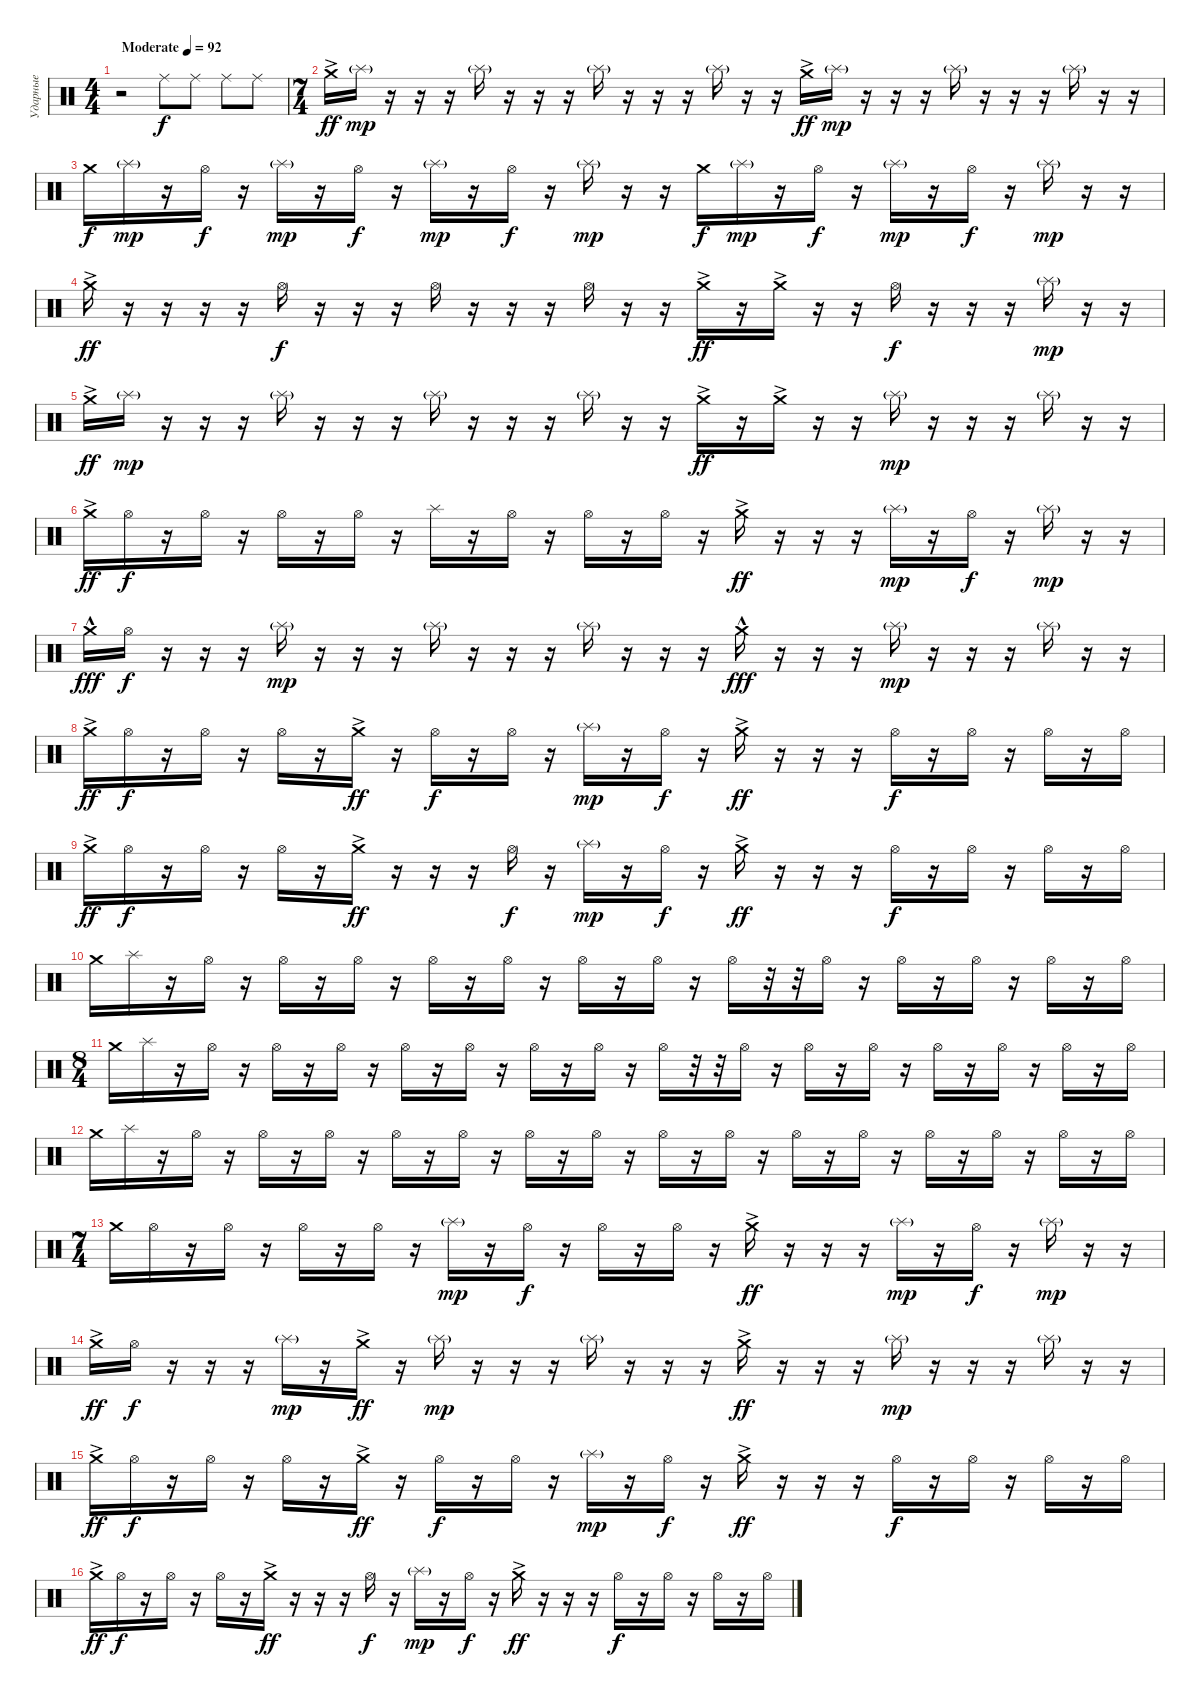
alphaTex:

\track ("Ударные" "Ударные") {instrument percussion}
\staff {score}
\articulation defaults
\ts (4 4)
\tempo (92 "Moderate")
\clef neutral
\ks c
r.2{dy f} "Ride (middle)".8 "Ride (middle)".8 "Ride (middle)".8 "Ride (middle)".8 |
\ts (7 4)
"Crash medium (hit)"{ac}.16{dy ff} "Splash (hit)"{g}.16{dy mp} r.16 r.16 r.16 "Splash (hit)"{g}.16 r.16 r.16 r.16 "Splash (hit)"{g}.16 r.16 r.16 r.16 "Splash (hit)"{g}.16 r.16 r.16 "Crash medium (hit)"{ac}.16{dy ff} "Splash (hit)"{g}.16{dy mp} r.16 r.16 r.16 "Splash (hit)"{g}.16 r.16 r.16 r.16 "Splash (hit)"{g}.16 r.16 r.16 |
"Crash medium (hit)".16{dy f} "Splash (hit)"{g}.16{dy mp} r.16 "Hi-Hat (open)".16{dy f} r.16 "Splash (hit)"{g}.16{dy mp} r.16 "Hi-Hat (open)".16{dy f} r.16 "Splash (hit)"{g}.16{dy mp} r.16 "Hi-Hat (open)".16{dy f} r.16 "Splash (hit)"{g}.16{dy mp} r.16 r.16 "Crash medium (hit)".16{dy f} "Splash (hit)"{g}.16{dy mp} r.16 "Hi-Hat (open)".16{dy f} r.16 "Splash (hit)"{g}.16{dy mp} r.16 "Hi-Hat (open)".16{dy f} r.16 "Splash (hit)"{g}.16{dy mp} r.16 r.16 |
"Crash medium (hit)"{ac}.16{dy ff} r.16 r.16 r.16 r.16 "Hi-Hat (open)".16{dy f} r.16 r.16 r.16 "Hi-Hat (open)".16 r.16 r.16 r.16 "Hi-Hat (open)".16 r.16 r.16 "Crash medium (hit)"{ac}.16{dy ff} r.16 "Crash medium (hit)"{ac}.16 r.16 r.16 "Hi-Hat (open)".16{dy f} r.16 r.16 r.16 "Splash (hit)"{g}.16{dy mp} r.16 r.16 |
"Crash medium (hit)"{ac}.16{dy ff} "Splash (hit)"{g}.16{dy mp} r.16 r.16 r.16 "Splash (hit)"{g}.16 r.16 r.16 r.16 "Splash (hit)"{g}.16 r.16 r.16 r.16 "Splash (hit)"{g}.16 r.16 r.16 "Crash medium (hit)"{ac}.16{dy ff} r.16 "Crash medium (hit)"{ac}.16 r.16 r.16 "Splash (hit)"{g}.16{dy mp} r.16 r.16 r.16 "Splash (hit)"{g}.16 r.16 r.16 |
"Crash medium (hit)"{ac}.16{dy ff} "Hi-Hat (open)".16{dy f} r.16 "Hi-Hat (open)".16 r.16 "Hi-Hat (open)".16 r.16 "Hi-Hat (open)".16 r.16 "Splash (hit)".16 r.16 "Hi-Hat (open)".16 r.16 "Hi-Hat (open)".16 r.16 "Hi-Hat (open)".16 r.16 "Crash medium (hit)"{ac}.16{dy ff} r.16 r.16 r.16 "Splash (hit)"{g}.16{dy mp} r.16 "Hi-Hat (open)".16{dy f} r.16 "Splash (hit)"{g}.16{dy mp} r.16 r.16 |
"Crash medium (hit)"{hac}.16{dy fff} "Hi-Hat (open)".16{dy f} r.16 r.16 r.16 "Splash (hit)"{g}.16{dy mp} r.16 r.16 r.16 "Splash (hit)"{g}.16 r.16 r.16 r.16 "Splash (hit)"{g}.16 r.16 r.16 r.16 "Crash medium (hit)"{hac}.16{dy fff} r.16 r.16 r.16 "Splash (hit)"{g}.16{dy mp} r.16 r.16 r.16 "Splash (hit)"{g}.16 r.16 r.16 |
"Crash medium (hit)"{ac}.16{dy ff} "Hi-Hat (open)".16{dy f} r.16 "Hi-Hat (open)".16 r.16 "Hi-Hat (open)".16 r.16 "Crash medium (hit)"{ac}.16{dy ff} r.16 "Hi-Hat (open)".16{dy f} r.16 "Hi-Hat (open)".16 r.16 "Splash (hit)"{g}.16{dy mp} r.16 "Hi-Hat (open)".16{dy f} r.16 "Crash medium (hit)"{ac}.16{dy ff} r.16 r.16 r.16 "Hi-Hat (open)".16{dy f} r.16 "Hi-Hat (open)".16 r.16 "Hi-Hat (open)".16 r.16 "Hi-Hat (open)".16 |
"Crash medium (hit)"{ac}.16{dy ff} "Hi-Hat (open)".16{dy f} r.16 "Hi-Hat (open)".16 r.16 "Hi-Hat (open)".16 r.16 "Crash medium (hit)"{ac}.16{dy ff} r.16 r.16 r.16 "Hi-Hat (open)".16{dy f} r.16 "Splash (hit)"{g}.16{dy mp} r.16 "Hi-Hat (open)".16{dy f} r.16 "Crash medium (hit)"{ac}.16{dy ff} r.16 r.16 r.16 "Hi-Hat (open)".16{dy f} r.16 "Hi-Hat (open)".16 r.16 "Hi-Hat (open)".16 r.16 "Hi-Hat (open)".16 |
"Crash medium (hit)".16 "Splash (hit)".16 r.16 "Hi-Hat (open)".16 r.16 "Hi-Hat (open)".16 r.16 "Hi-Hat (open)".16 r.16 "Hi-Hat (open)".16 r.16 "Hi-Hat (open)".16 r.16 "Hi-Hat (open)".16 r.16 "Hi-Hat (open)".16 r.16 "Hi-Hat (open)".16 r.32 r.32 "Hi-Hat (open)".16 r.16 "Hi-Hat (open)".16 r.16 "Hi-Hat (open)".16 r.16 "Hi-Hat (open)".16 r.16 "Hi-Hat (open)".16 |
\ts (8 4)
"Crash medium (hit)".16 "Splash (hit)".16 r.16 "Hi-Hat (open)".16 r.16 "Hi-Hat (open)".16 r.16 "Hi-Hat (open)".16 r.16 "Hi-Hat (open)".16 r.16 "Hi-Hat (open)".16 r.16 "Hi-Hat (open)".16 r.16 "Hi-Hat (open)".16 r.16 "Hi-Hat (open)".16 r.32 r.32 "Hi-Hat (open)".16 r.16 "Hi-Hat (open)".16 r.16 "Hi-Hat (open)".16 r.16 "Hi-Hat (open)".16 r.16 "Hi-Hat (open)".16 r.16 "Hi-Hat (open)".16 r.16 "Hi-Hat (open)".16 |
"Crash medium (hit)".16 "Splash (hit)".16 r.16 "Hi-Hat (open)".16 r.16 "Hi-Hat (open)".16 r.16 "Hi-Hat (open)".16 r.16 "Hi-Hat (open)".16 r.16 "Hi-Hat (open)".16 r.16 "Hi-Hat (open)".16 r.16 "Hi-Hat (open)".16 r.16 "Hi-Hat (open)".16 r.16 "Hi-Hat (open)".16 r.16 "Hi-Hat (open)".16 r.16 "Hi-Hat (open)".16 r.16 "Hi-Hat (open)".16 r.16 "Hi-Hat (open)".16 r.16 "Hi-Hat (open)".16 r.16 "Hi-Hat (open)".16 |
\ts (7 4)
"Crash medium (hit)".16 "Hi-Hat (open)".16 r.16 "Hi-Hat (open)".16 r.16 "Hi-Hat (open)".16 r.16 "Hi-Hat (open)".16 r.16 "Splash (hit)"{g}.16{dy mp} r.16 "Hi-Hat (open)".16{dy f} r.16 "Hi-Hat (open)".16 r.16 "Hi-Hat (open)".16 r.16 "Crash medium (hit)"{ac}.16{dy ff} r.16 r.16 r.16 "Splash (hit)"{g}.16{dy mp} r.16 "Hi-Hat (open)".16{dy f} r.16 "Splash (hit)"{g}.16{dy mp} r.16 r.16 |
"Crash medium (hit)"{ac}.16{dy ff} "Hi-Hat (open)".16{dy f} r.16 r.16 r.16 "Splash (hit)"{g}.16{dy mp} r.16 "Crash medium (hit)"{ac}.16{dy ff} r.16 "Splash (hit)"{g}.16{dy mp} r.16 r.16 r.16 "Splash (hit)"{g}.16 r.16 r.16 r.16 "Crash medium (hit)"{ac}.16{dy ff} r.16 r.16 r.16 "Splash (hit)"{g}.16{dy mp} r.16 r.16 r.16 "Splash (hit)"{g}.16 r.16 r.16 |
"Crash medium (hit)"{ac}.16{dy ff} "Hi-Hat (open)".16{dy f} r.16 "Hi-Hat (open)".16 r.16 "Hi-Hat (open)".16 r.16 "Crash medium (hit)"{ac}.16{dy ff} r.16 "Hi-Hat (open)".16{dy f} r.16 "Hi-Hat (open)".16 r.16 "Splash (hit)"{g}.16{dy mp} r.16 "Hi-Hat (open)".16{dy f} r.16 "Crash medium (hit)"{ac}.16{dy ff} r.16 r.16 r.16 "Hi-Hat (open)".16{dy f} r.16 "Hi-Hat (open)".16 r.16 "Hi-Hat (open)".16 r.16 "Hi-Hat (open)".16 |
"Crash medium (hit)"{ac}.16{dy ff} "Hi-Hat (open)".16{dy f} r.16 "Hi-Hat (open)".16 r.16 "Hi-Hat (open)".16 r.16 "Crash medium (hit)"{ac}.16{dy ff} r.16 r.16 r.16 "Hi-Hat (open)".16{dy f} r.16 "Splash (hit)"{g}.16{dy mp} r.16 "Hi-Hat (open)".16{dy f} r.16 "Crash medium (hit)"{ac}.16{dy ff} r.16 r.16 r.16 "Hi-Hat (open)".16{dy f} r.16 "Hi-Hat (open)".16 r.16 "Hi-Hat (open)".16 r.16 "Hi-Hat (open)".16
